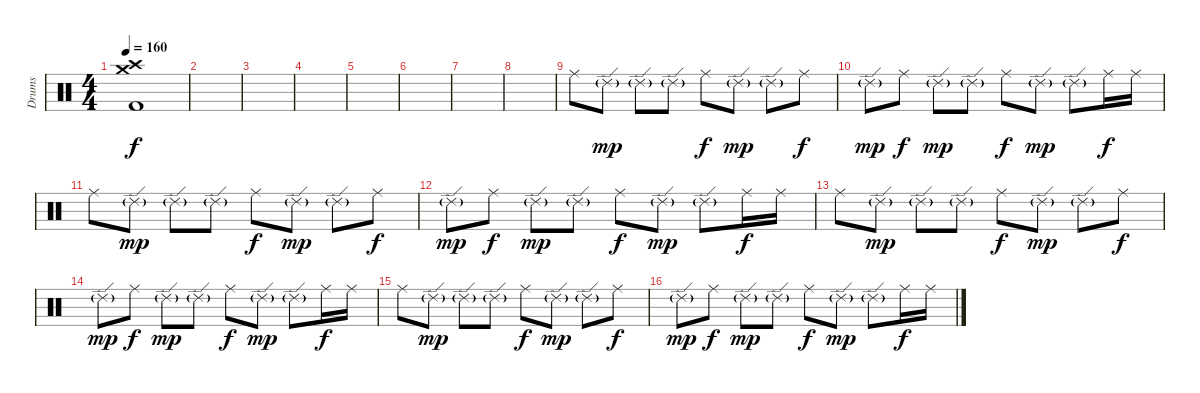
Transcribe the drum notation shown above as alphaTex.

\track ("Drums" "Drums") {instrument percussion}
\staff {score}
\articulation defaults
\ts (4 4)
\section ("" "")
\tempo 160
\clef neutral
\ks c
("Crash medium (hit)" "Crash high (hit)" "Kick (hit) 2").1{dy f} |
|
|
|
|
|
|
|
"Ride (middle)".8 "Ride (edge) 2"{g}.8{dy mp} "Ride (edge) 2"{g}.8 "Ride (edge) 2"{g}.8 "Ride (middle)".8{dy f} "Ride (edge) 2"{g}.8{dy mp} "Ride (edge) 2"{g}.8 "Ride (middle)".8{dy f} |
"Ride (edge) 2"{g}.8{dy mp} "Ride (middle)".8{dy f} "Ride (edge) 2"{g}.8{dy mp} "Ride (edge) 2"{g}.8 "Ride (middle)".8{dy f} "Ride (edge) 2"{g}.8{dy mp} "Ride (edge) 2"{g}.8 "Ride (middle)".16{dy f} "Ride (middle)".16 |
"Ride (middle)".8 "Ride (edge) 2"{g}.8{dy mp} "Ride (edge) 2"{g}.8 "Ride (edge) 2"{g}.8 "Ride (middle)".8{dy f} "Ride (edge) 2"{g}.8{dy mp} "Ride (edge) 2"{g}.8 "Ride (middle)".8{dy f} |
"Ride (edge) 2"{g}.8{dy mp} "Ride (middle)".8{dy f} "Ride (edge) 2"{g}.8{dy mp} "Ride (edge) 2"{g}.8 "Ride (middle)".8{dy f} "Ride (edge) 2"{g}.8{dy mp} "Ride (edge) 2"{g}.8 "Ride (middle)".16{dy f} "Ride (middle)".16 |
"Ride (middle)".8 "Ride (edge) 2"{g}.8{dy mp} "Ride (edge) 2"{g}.8 "Ride (edge) 2"{g}.8 "Ride (middle)".8{dy f} "Ride (edge) 2"{g}.8{dy mp} "Ride (edge) 2"{g}.8 "Ride (middle)".8{dy f} |
"Ride (edge) 2"{g}.8{dy mp} "Ride (middle)".8{dy f} "Ride (edge) 2"{g}.8{dy mp} "Ride (edge) 2"{g}.8 "Ride (middle)".8{dy f} "Ride (edge) 2"{g}.8{dy mp} "Ride (edge) 2"{g}.8 "Ride (middle)".16{dy f} "Ride (middle)".16 |
"Ride (middle)".8 "Ride (edge) 2"{g}.8{dy mp} "Ride (edge) 2"{g}.8 "Ride (edge) 2"{g}.8 "Ride (middle)".8{dy f} "Ride (edge) 2"{g}.8{dy mp} "Ride (edge) 2"{g}.8 "Ride (middle)".8{dy f} |
"Ride (edge) 2"{g}.8{dy mp} "Ride (middle)".8{dy f} "Ride (edge) 2"{g}.8{dy mp} "Ride (edge) 2"{g}.8 "Ride (middle)".8{dy f} "Ride (edge) 2"{g}.8{dy mp} "Ride (edge) 2"{g}.8 "Ride (middle)".16{dy f} "Ride (middle)".16
